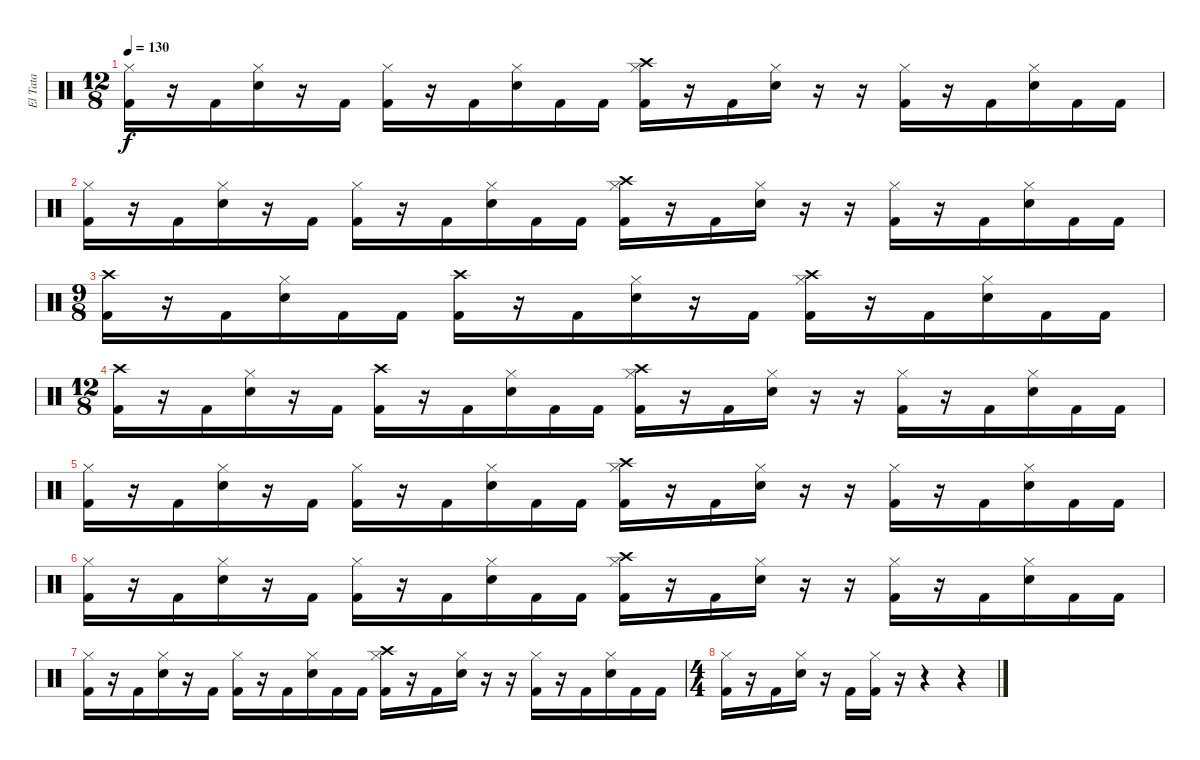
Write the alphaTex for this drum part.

\track ("El Tata" "El Tata") {instrument percussion}
\staff {score}
\articulation defaults
\ts (12 8)
\tempo 130
\clef neutral
\ks c
("Kick (hit) 2" "Hi-Hat (closed)").16{dy f} r.16 "Kick (hit) 2".16 ("Hi-Hat (closed)" "Electric Snare (hit)").16 r.16 "Kick (hit) 2".16 ("Kick (hit) 2" "Hi-Hat (closed)").16 r.16 "Kick (hit) 2".16 ("Hi-Hat (closed)" "Electric Snare (hit)").16 "Kick (hit) 2".16 "Kick (hit) 2".16 ("Kick (hit) 2" "Hi-Hat (closed)" "Crash high (hit)").16 r.16 "Kick (hit) 2".16 ("Hi-Hat (closed)" "Electric Snare (hit)").16 r.16 r.16 ("Kick (hit) 2" "Hi-Hat (closed)").16 r.16 "Kick (hit) 2".16 ("Hi-Hat (closed)" "Electric Snare (hit)").16 "Kick (hit) 2".16 "Kick (hit) 2".16 |
("Kick (hit) 2" "Hi-Hat (closed)").16 r.16 "Kick (hit) 2".16 ("Hi-Hat (closed)" "Electric Snare (hit)").16 r.16 "Kick (hit) 2".16 ("Kick (hit) 2" "Hi-Hat (closed)").16 r.16 "Kick (hit) 2".16 ("Hi-Hat (closed)" "Electric Snare (hit)").16 "Kick (hit) 2".16 "Kick (hit) 2".16 ("Kick (hit) 2" "Hi-Hat (closed)" "Crash high (hit)").16 r.16 "Kick (hit) 2".16 ("Hi-Hat (closed)" "Electric Snare (hit)").16 r.16 r.16 ("Kick (hit) 2" "Hi-Hat (closed)").16 r.16 "Kick (hit) 2".16 ("Hi-Hat (closed)" "Electric Snare (hit)").16 "Kick (hit) 2".16 "Kick (hit) 2".16 |
\ts (9 8)
("Kick (hit) 2" "Crash high (hit)").16 r.16 "Kick (hit) 2".16 ("Hi-Hat (closed)" "Electric Snare (hit)").16 "Kick (hit) 2".16 "Kick (hit) 2".16 ("Kick (hit) 2" "Crash high (hit)").16 r.16 "Kick (hit) 2".16 ("Hi-Hat (closed)" "Electric Snare (hit)").16 r.16 "Kick (hit) 2".16 ("Kick (hit) 2" "Hi-Hat (closed)" "Crash high (hit)").16 r.16 "Kick (hit) 2".16 ("Hi-Hat (closed)" "Electric Snare (hit)").16 "Kick (hit) 2".16 "Kick (hit) 2".16 |
\ts (12 8)
("Kick (hit) 2" "Crash high (hit)").16 r.16 "Kick (hit) 2".16 ("Hi-Hat (closed)" "Electric Snare (hit)").16 r.16 "Kick (hit) 2".16 ("Kick (hit) 2" "Crash high (hit)").16 r.16 "Kick (hit) 2".16 ("Hi-Hat (closed)" "Electric Snare (hit)").16 "Kick (hit) 2".16 "Kick (hit) 2".16 ("Kick (hit) 2" "Hi-Hat (closed)" "Crash high (hit)").16 r.16 "Kick (hit) 2".16 ("Hi-Hat (closed)" "Electric Snare (hit)").16 r.16 r.16 ("Kick (hit) 2" "Hi-Hat (closed)").16 r.16 "Kick (hit) 2".16 ("Hi-Hat (closed)" "Electric Snare (hit)").16 "Kick (hit) 2".16 "Kick (hit) 2".16 |
("Kick (hit) 2" "Hi-Hat (closed)").16 r.16 "Kick (hit) 2".16 ("Hi-Hat (closed)" "Electric Snare (hit)").16 r.16 "Kick (hit) 2".16 ("Kick (hit) 2" "Hi-Hat (closed)").16 r.16 "Kick (hit) 2".16 ("Hi-Hat (closed)" "Electric Snare (hit)").16 "Kick (hit) 2".16 "Kick (hit) 2".16 ("Kick (hit) 2" "Hi-Hat (closed)" "Crash high (hit)").16 r.16 "Kick (hit) 2".16 ("Hi-Hat (closed)" "Electric Snare (hit)").16 r.16 r.16 ("Kick (hit) 2" "Hi-Hat (closed)").16 r.16 "Kick (hit) 2".16 ("Hi-Hat (closed)" "Electric Snare (hit)").16 "Kick (hit) 2".16 "Kick (hit) 2".16 |
("Kick (hit) 2" "Hi-Hat (closed)").16 r.16 "Kick (hit) 2".16 ("Hi-Hat (closed)" "Electric Snare (hit)").16 r.16 "Kick (hit) 2".16 ("Kick (hit) 2" "Hi-Hat (closed)").16 r.16 "Kick (hit) 2".16 ("Hi-Hat (closed)" "Electric Snare (hit)").16 "Kick (hit) 2".16 "Kick (hit) 2".16 ("Kick (hit) 2" "Hi-Hat (closed)" "Crash high (hit)").16 r.16 "Kick (hit) 2".16 ("Hi-Hat (closed)" "Electric Snare (hit)").16 r.16 r.16 ("Kick (hit) 2" "Hi-Hat (closed)").16 r.16 "Kick (hit) 2".16 ("Hi-Hat (closed)" "Electric Snare (hit)").16 "Kick (hit) 2".16 "Kick (hit) 2".16 |
("Kick (hit) 2" "Hi-Hat (closed)").16 r.16 "Kick (hit) 2".16 ("Hi-Hat (closed)" "Electric Snare (hit)").16 r.16 "Kick (hit) 2".16 ("Kick (hit) 2" "Hi-Hat (closed)").16 r.16 "Kick (hit) 2".16 ("Hi-Hat (closed)" "Electric Snare (hit)").16 "Kick (hit) 2".16 "Kick (hit) 2".16 ("Kick (hit) 2" "Hi-Hat (closed)" "Crash high (hit)").16 r.16 "Kick (hit) 2".16 ("Hi-Hat (closed)" "Electric Snare (hit)").16 r.16 r.16 ("Kick (hit) 2" "Hi-Hat (closed)").16 r.16 "Kick (hit) 2".16 ("Hi-Hat (closed)" "Electric Snare (hit)").16 "Kick (hit) 2".16 "Kick (hit) 2".16 |
\ts (4 4)
("Kick (hit) 2" "Hi-Hat (closed)").16 r.16 "Kick (hit) 2".16 ("Hi-Hat (closed)" "Electric Snare (hit)").16 r.16 "Kick (hit) 2".16 ("Kick (hit) 2" "Hi-Hat (closed)").16 r.16 r.4 r.4
